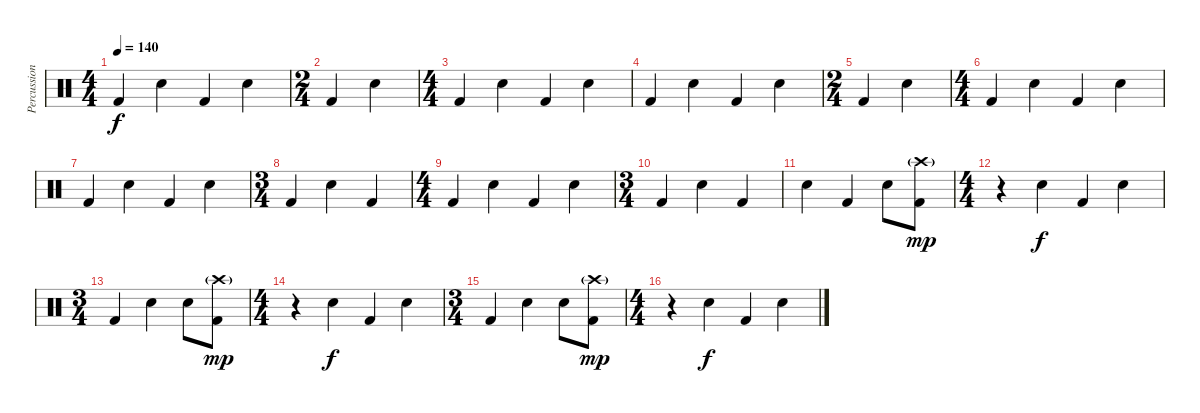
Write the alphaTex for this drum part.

\track ("Percussion" "Percussion") {instrument percussion}
\staff {score}
\articulation defaults
\ts (4 4)
\tempo 140
\clef neutral
\ks c "Kick (hit) 2".4{dy f} "Snare (hit) 2".4 "Kick (hit) 2".4 "Snare (hit) 2".4
|
\ts (2 4)
"Kick (hit) 2".4 "Snare (hit) 2".4 |
\ts (4 4)
"Kick (hit) 2".4 "Snare (hit) 2".4 "Kick (hit) 2".4 "Snare (hit) 2".4 |
"Kick (hit) 2".4 "Snare (hit) 2".4 "Kick (hit) 2".4 "Snare (hit) 2".4 |
\ts (2 4)
"Kick (hit) 2".4 "Snare (hit) 2".4 |
\ts (4 4)
"Kick (hit) 2".4 "Snare (hit) 2".4 "Kick (hit) 2".4 "Snare (hit) 2".4 |
"Kick (hit) 2".4 "Snare (hit) 2".4 "Kick (hit) 2".4 "Snare (hit) 2".4 |
\ts (3 4)
"Kick (hit) 2".4 "Snare (hit) 2".4 "Kick (hit) 2".4 |
\ts (4 4)
"Kick (hit) 2".4 "Snare (hit) 2".4 "Kick (hit) 2".4 "Snare (hit) 2".4 |
\ts (3 4)
"Kick (hit) 2".4 "Snare (hit) 2".4 "Kick (hit) 2".4 |
"Snare (hit) 2".4 "Kick (hit) 2".4 "Snare (hit) 2".8 ("Crash high (hit)"{g} "Kick (hit) 2").8{dy mp} |
\ts (4 4)
r.4 "Snare (hit) 2".4{dy f} "Kick (hit) 2".4 "Snare (hit) 2".4 |
\ts (3 4)
"Kick (hit) 2".4 "Snare (hit) 2".4 "Snare (hit) 2".8 ("Crash high (hit)"{g} "Kick (hit) 2").8{dy mp} |
\ts (4 4)
r.4 "Snare (hit) 2".4{dy f} "Kick (hit) 2".4 "Snare (hit) 2".4 |
\ts (3 4)
"Kick (hit) 2".4 "Snare (hit) 2".4 "Snare (hit) 2".8 ("Crash high (hit)"{g} "Kick (hit) 2").8{dy mp} |
\ts (4 4)
r.4 "Snare (hit) 2".4{dy f} "Kick (hit) 2".4 "Snare (hit) 2".4
